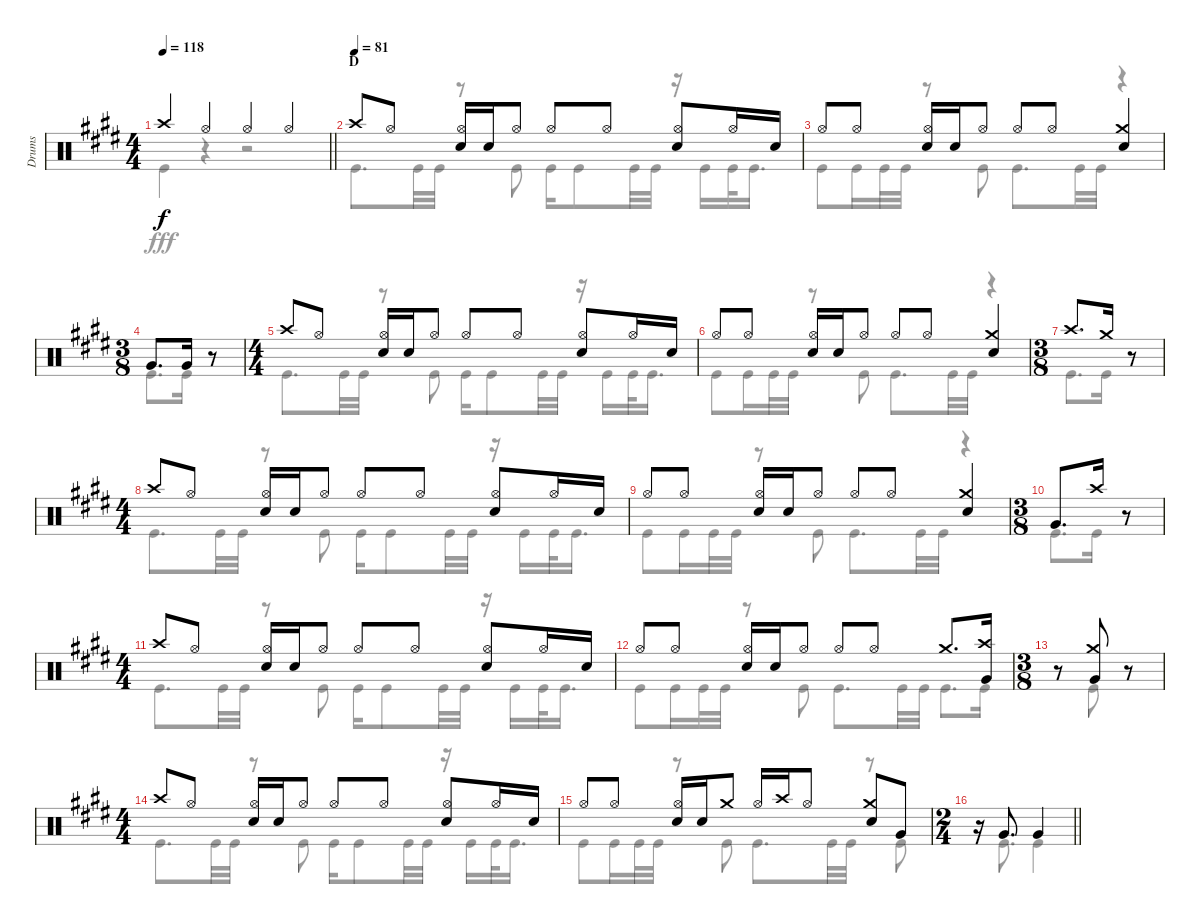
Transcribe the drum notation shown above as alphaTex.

\track ("Drums" "Drums") {instrument percussion}
\staff {score}
\articulation defaults
\voice
\ts (4 4)
\tempo 118
\clef neutral
\barLineRight lightlight
\ks e "Crash high (hit)".4{dy f} "Hi-Hat (open)".4 "Hi-Hat (open)".4 "Hi-Hat (open)".4
|
\section ("" "D")
\tempo (81)
"Crash high (hit)".8 "Hi-Hat (open)".8 ("Hi-Hat (open)" "Snare (hit) 2").16 "Snare (hit) 2".16 "Hi-Hat (open)".8 "Hi-Hat (open)".8 "Hi-Hat (open)".8 ("Hi-Hat (open)" "Snare (hit) 2").8 "Hi-Hat (open)".16 "Snare (hit) 2".16 |
"Hi-Hat (open)".8 "Hi-Hat (open)".8 ("Hi-Hat (open)" "Snare (hit) 2").16 "Snare (hit) 2".16 "Hi-Hat (open)".8 "Hi-Hat (open)".8 "Hi-Hat (open)".8 ("Crash medium (hit)" "Snare (hit) 2").4 |
\ts (3 8)
"Very Low Tom (hit)".8{d} "Very Low Tom (hit)".16 r.8 |
\ts (4 4)
"Crash high (hit)".8 "Hi-Hat (open)".8 ("Hi-Hat (open)" "Snare (hit) 2").16 "Snare (hit) 2".16 "Hi-Hat (open)".8 "Hi-Hat (open)".8 "Hi-Hat (open)".8 ("Hi-Hat (open)" "Snare (hit) 2").8 "Hi-Hat (open)".16 "Snare (hit) 2".16 |
"Hi-Hat (open)".8 "Hi-Hat (open)".8 ("Hi-Hat (open)" "Snare (hit) 2").16 "Snare (hit) 2".16 "Hi-Hat (open)".8 "Hi-Hat (open)".8 "Hi-Hat (open)".8 ("Crash medium (hit)" "Snare (hit) 2").4 |
\ts (3 8)
"Crash high (hit)".8{d} "Crash medium (hit)".16 r.8 |
\ts (4 4)
"Crash high (hit)".8 "Hi-Hat (open)".8 ("Hi-Hat (open)" "Snare (hit) 2").16 "Snare (hit) 2".16 "Hi-Hat (open)".8 "Hi-Hat (open)".8 "Hi-Hat (open)".8 ("Hi-Hat (open)" "Snare (hit) 2").8 "Hi-Hat (open)".16 "Snare (hit) 2".16 |
"Hi-Hat (open)".8 "Hi-Hat (open)".8 ("Hi-Hat (open)" "Snare (hit) 2").16 "Snare (hit) 2".16 "Hi-Hat (open)".8 "Hi-Hat (open)".8 "Hi-Hat (open)".8 ("Crash medium (hit)" "Snare (hit) 2").4 |
\ts (3 8)
"Very Low Tom (hit)".8{d} "Crash high (hit)".16 r.8 |
\ts (4 4)
"Crash high (hit)".8 "Hi-Hat (open)".8 ("Hi-Hat (open)" "Snare (hit) 2").16 "Snare (hit) 2".16 "Hi-Hat (open)".8 "Hi-Hat (open)".8 "Hi-Hat (open)".8 ("Hi-Hat (open)" "Snare (hit) 2").8 "Hi-Hat (open)".16 "Snare (hit) 2".16 |
"Hi-Hat (open)".8 "Hi-Hat (open)".8 ("Hi-Hat (open)" "Snare (hit) 2").16 "Snare (hit) 2".16 "Hi-Hat (open)".8 "Hi-Hat (open)".8 "Hi-Hat (open)".8 "Crash medium (hit)".8{d} ("Crash high (hit)" "Very Low Tom (hit)").16 |
\ts (3 8)
r.8 ("Crash medium (hit)" "Very Low Tom (hit)").8 r.8 |
\ts (4 4)
"Crash high (hit)".8 "Hi-Hat (open)".8 ("Hi-Hat (open)" "Snare (hit) 2").16 "Snare (hit) 2".16 "Hi-Hat (open)".8 "Hi-Hat (open)".8 "Hi-Hat (open)".8 ("Hi-Hat (open)" "Snare (hit) 2").8 "Hi-Hat (open)".16 "Snare (hit) 2".16 |
"Hi-Hat (open)".8 "Hi-Hat (open)".8 ("Hi-Hat (open)" "Snare (hit) 2").16 "Snare (hit) 2".16 "Crash medium (hit)".8 "Hi-Hat (open)".16 "Crash high (hit)".16 "Hi-Hat (open)".8 ("Crash medium (hit)" "Snare (hit) 2").8 "Very Low Tom (hit)".8 |
\ts (2 4)
\barLineRight lightlight
r.16 "Very Low Tom (hit)".8{d} "Very Low Tom (hit)".4
\voice
\clef neutral
\ottava regular
\simile none
\barLineRight lightlight
\ks e "Kick (hit)".4{dy fff}
r.4 r.2 |
"Kick (hit)".8{d} "Kick (hit)".32 "Kick (hit)".32 r.8 "Kick (hit)".8 "Kick (hit)".16 "Kick (hit)".8 "Kick (hit)".32 "Kick (hit)".32 r.16 "Kick (hit)".16 "Kick (hit)".32 "Kick (hit)".16{d} |
"Kick (hit)".8 "Kick (hit)".16 "Kick (hit)".32 "Kick (hit)".32 r.8 "Kick (hit)".8 "Kick (hit)".8{d} "Kick (hit)".32 "Kick (hit)".32 r.4 |
"Kick (hit)".8{d} "Kick (hit)".16 r.8 |
"Kick (hit)".8{d} "Kick (hit)".32 "Kick (hit)".32 r.8 "Kick (hit)".8 "Kick (hit)".16 "Kick (hit)".8 "Kick (hit)".32 "Kick (hit)".32 r.16 "Kick (hit)".16 "Kick (hit)".32 "Kick (hit)".16{d} |
"Kick (hit)".8 "Kick (hit)".16 "Kick (hit)".32 "Kick (hit)".32 r.8 "Kick (hit)".8 "Kick (hit)".8{d} "Kick (hit)".32 "Kick (hit)".32 r.4 |
"Kick (hit)".8{d} "Kick (hit)".16 r.8 |
"Kick (hit)".8{d} "Kick (hit)".32 "Kick (hit)".32 r.8 "Kick (hit)".8 "Kick (hit)".16 "Kick (hit)".8 "Kick (hit)".32 "Kick (hit)".32 r.16 "Kick (hit)".16 "Kick (hit)".32 "Kick (hit)".16{d} |
"Kick (hit)".8 "Kick (hit)".16 "Kick (hit)".32 "Kick (hit)".32 r.8 "Kick (hit)".8 "Kick (hit)".8{d} "Kick (hit)".32 "Kick (hit)".32 r.4 |
"Kick (hit)".8{d} "Kick (hit)".16 r.8 |
"Kick (hit)".8{d} "Kick (hit)".32 "Kick (hit)".32 r.8 "Kick (hit)".8 "Kick (hit)".16 "Kick (hit)".8 "Kick (hit)".32 "Kick (hit)".32 r.16 "Kick (hit)".16 "Kick (hit)".32 "Kick (hit)".16{d} |
"Kick (hit)".8 "Kick (hit)".16 "Kick (hit)".32 "Kick (hit)".32 r.8 "Kick (hit)".8 "Kick (hit)".8{d} "Kick (hit)".32 "Kick (hit)".32 "Kick (hit)".8{d} "Kick (hit)".16 |
r.8 "Kick (hit)".8 r.8 |
"Kick (hit)".8{d} "Kick (hit)".32 "Kick (hit)".32 r.8 "Kick (hit)".8 "Kick (hit)".16 "Kick (hit)".8 "Kick (hit)".32 "Kick (hit)".32 r.16 "Kick (hit)".16 "Kick (hit)".32 "Kick (hit)".16{d} |
"Kick (hit)".8 "Kick (hit)".16 "Kick (hit)".32 "Kick (hit)".32 r.8 "Kick (hit)".8 "Kick (hit)".8{d} "Kick (hit)".32 "Kick (hit)".32 r.8 "Kick (hit)".8 |
\barLineRight lightlight
r.16 "Kick (hit)".8{d} "Kick (hit)".4
